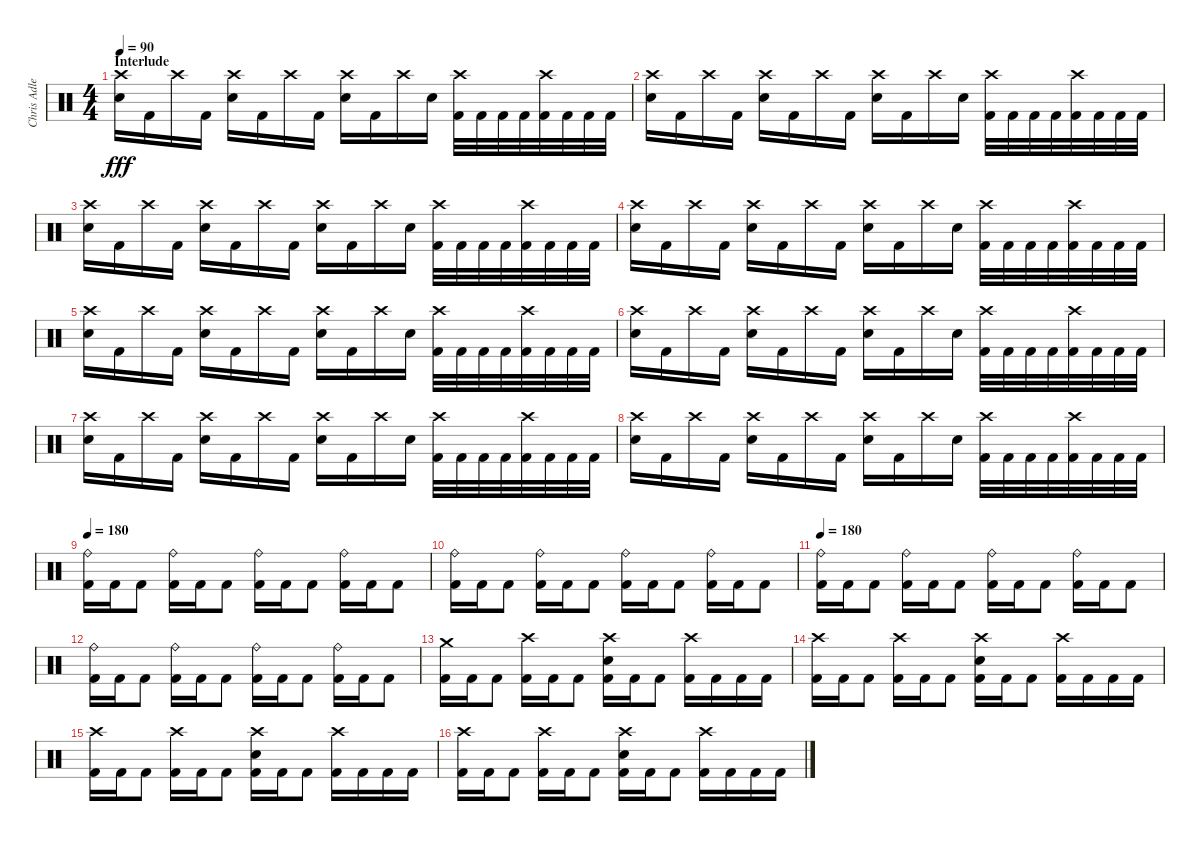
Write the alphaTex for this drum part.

\track ("Chris Adler" "Chris Adle") {instrument percussion}
\staff {score}
\articulation defaults
\ts (4 4)
\section ("" "Interlude")
\tempo 90
\clef neutral
\ks c
("Crash high (hit)" "Electric Snare (hit)").16{dy fff} "Kick (hit) 2".16 "Crash high (hit)".16 "Kick (hit) 2".16 ("Crash high (hit)" "Electric Snare (hit)").16 "Kick (hit) 2".16 "Crash high (hit)".16 "Kick (hit) 2".16 ("Crash high (hit)" "Electric Snare (hit)").16 "Kick (hit) 2".16 "Crash high (hit)".16 "Electric Snare (hit)".16 ("Crash high (hit)" "Kick (hit) 2").32 "Kick (hit) 2".32 "Kick (hit) 2".32 "Kick (hit) 2".32 ("Crash high (hit)" "Kick (hit) 2").32 "Kick (hit) 2".32 "Kick (hit) 2".32 "Kick (hit) 2".32 |
("Crash high (hit)" "Electric Snare (hit)").16 "Kick (hit) 2".16 "Crash high (hit)".16 "Kick (hit) 2".16 ("Crash high (hit)" "Electric Snare (hit)").16 "Kick (hit) 2".16 "Crash high (hit)".16 "Kick (hit) 2".16 ("Crash high (hit)" "Electric Snare (hit)").16 "Kick (hit) 2".16 "Crash high (hit)".16 "Electric Snare (hit)".16 ("Crash high (hit)" "Kick (hit) 2").32 "Kick (hit) 2".32 "Kick (hit) 2".32 "Kick (hit) 2".32 ("Crash high (hit)" "Kick (hit) 2").32 "Kick (hit) 2".32 "Kick (hit) 2".32 "Kick (hit) 2".32 |
("Crash high (hit)" "Electric Snare (hit)").16 "Kick (hit) 2".16 "Crash high (hit)".16 "Kick (hit) 2".16 ("Crash high (hit)" "Electric Snare (hit)").16 "Kick (hit) 2".16 "Crash high (hit)".16 "Kick (hit) 2".16 ("Crash high (hit)" "Electric Snare (hit)").16 "Kick (hit) 2".16 "Crash high (hit)".16 "Electric Snare (hit)".16 ("Crash high (hit)" "Kick (hit) 2").32 "Kick (hit) 2".32 "Kick (hit) 2".32 "Kick (hit) 2".32 ("Crash high (hit)" "Kick (hit) 2").32 "Kick (hit) 2".32 "Kick (hit) 2".32 "Kick (hit) 2".32 |
("Crash high (hit)" "Electric Snare (hit)").16 "Kick (hit) 2".16 "Crash high (hit)".16 "Kick (hit) 2".16 ("Crash high (hit)" "Electric Snare (hit)").16 "Kick (hit) 2".16 "Crash high (hit)".16 "Kick (hit) 2".16 ("Crash high (hit)" "Electric Snare (hit)").16 "Kick (hit) 2".16 "Crash high (hit)".16 "Electric Snare (hit)".16 ("Crash high (hit)" "Kick (hit) 2").32 "Kick (hit) 2".32 "Kick (hit) 2".32 "Kick (hit) 2".32 ("Crash high (hit)" "Kick (hit) 2").32 "Kick (hit) 2".32 "Kick (hit) 2".32 "Kick (hit) 2".32 |
("Crash high (hit)" "Electric Snare (hit)").16 "Kick (hit) 2".16 "Crash high (hit)".16 "Kick (hit) 2".16 ("Crash high (hit)" "Electric Snare (hit)").16 "Kick (hit) 2".16 "Crash high (hit)".16 "Kick (hit) 2".16 ("Crash high (hit)" "Electric Snare (hit)").16 "Kick (hit) 2".16 "Crash high (hit)".16 "Electric Snare (hit)".16 ("Crash high (hit)" "Kick (hit) 2").32 "Kick (hit) 2".32 "Kick (hit) 2".32 "Kick (hit) 2".32 ("Crash high (hit)" "Kick (hit) 2").32 "Kick (hit) 2".32 "Kick (hit) 2".32 "Kick (hit) 2".32 |
("Crash high (hit)" "Electric Snare (hit)").16 "Kick (hit) 2".16 "Crash high (hit)".16 "Kick (hit) 2".16 ("Crash high (hit)" "Electric Snare (hit)").16 "Kick (hit) 2".16 "Crash high (hit)".16 "Kick (hit) 2".16 ("Crash high (hit)" "Electric Snare (hit)").16 "Kick (hit) 2".16 "Crash high (hit)".16 "Electric Snare (hit)".16 ("Crash high (hit)" "Kick (hit) 2").32 "Kick (hit) 2".32 "Kick (hit) 2".32 "Kick (hit) 2".32 ("Crash high (hit)" "Kick (hit) 2").32 "Kick (hit) 2".32 "Kick (hit) 2".32 "Kick (hit) 2".32 |
("Crash high (hit)" "Electric Snare (hit)").16 "Kick (hit) 2".16 "Crash high (hit)".16 "Kick (hit) 2".16 ("Crash high (hit)" "Electric Snare (hit)").16 "Kick (hit) 2".16 "Crash high (hit)".16 "Kick (hit) 2".16 ("Crash high (hit)" "Electric Snare (hit)").16 "Kick (hit) 2".16 "Crash high (hit)".16 "Electric Snare (hit)".16 ("Crash high (hit)" "Kick (hit) 2").32 "Kick (hit) 2".32 "Kick (hit) 2".32 "Kick (hit) 2".32 ("Crash high (hit)" "Kick (hit) 2").32 "Kick (hit) 2".32 "Kick (hit) 2".32 "Kick (hit) 2".32 |
("Crash high (hit)" "Electric Snare (hit)").16 "Kick (hit) 2".16 "Crash high (hit)".16 "Kick (hit) 2".16 ("Crash high (hit)" "Electric Snare (hit)").16 "Kick (hit) 2".16 "Crash high (hit)".16 "Kick (hit) 2".16 ("Crash high (hit)" "Electric Snare (hit)").16 "Kick (hit) 2".16 "Crash high (hit)".16 "Electric Snare (hit)".16 ("Crash high (hit)" "Kick (hit) 2").32 "Kick (hit) 2".32 "Kick (hit) 2".32 "Kick (hit) 2".32 ("Crash high (hit)" "Kick (hit) 2").32 "Kick (hit) 2".32 "Kick (hit) 2".32 "Kick (hit) 2".32 |
\tempo 180
("Ride (bell)" "Kick (hit) 2").16 "Kick (hit) 2".16 "Kick (hit) 2".8 ("Ride (bell)" "Kick (hit) 2").16 "Kick (hit) 2".16 "Kick (hit) 2".8 ("Ride (bell)" "Kick (hit) 2").16 "Kick (hit) 2".16 "Kick (hit) 2".8 ("Ride (bell)" "Kick (hit) 2").16 "Kick (hit) 2".16 "Kick (hit) 2".8 |
("Ride (bell)" "Kick (hit) 2").16 "Kick (hit) 2".16 "Kick (hit) 2".8 ("Ride (bell)" "Kick (hit) 2").16 "Kick (hit) 2".16 "Kick (hit) 2".8 ("Ride (bell)" "Kick (hit) 2").16 "Kick (hit) 2".16 "Kick (hit) 2".8 ("Ride (bell)" "Kick (hit) 2").16 "Kick (hit) 2".16 "Kick (hit) 2".8 |
\tempo 180
("Ride (bell)" "Kick (hit) 2").16 "Kick (hit) 2".16 "Kick (hit) 2".8 ("Ride (bell)" "Kick (hit) 2").16 "Kick (hit) 2".16 "Kick (hit) 2".8 ("Ride (bell)" "Kick (hit) 2").16 "Kick (hit) 2".16 "Kick (hit) 2".8 ("Ride (bell)" "Kick (hit) 2").16 "Kick (hit) 2".16 "Kick (hit) 2".8 |
("Ride (bell)" "Kick (hit) 2").16 "Kick (hit) 2".16 "Kick (hit) 2".8 ("Ride (bell)" "Kick (hit) 2").16 "Kick (hit) 2".16 "Kick (hit) 2".8 ("Ride (bell)" "Kick (hit) 2").16 "Kick (hit) 2".16 "Kick (hit) 2".8 ("Ride (bell)" "Kick (hit) 2").16 "Kick (hit) 2".16 "Kick (hit) 2".8 |
("Crash medium (hit)" "Kick (hit) 2").16 "Kick (hit) 2".16 "Kick (hit) 2".8 ("Crash high (hit)" "Kick (hit) 2").16 "Kick (hit) 2".16 "Kick (hit) 2".8 ("Crash high (hit)" "Electric Snare (hit)" "Kick (hit) 2").16 "Kick (hit) 2".16 "Kick (hit) 2".8 ("Crash high (hit)" "Kick (hit) 2").16 "Kick (hit) 2".16 "Kick (hit) 2".16 "Kick (hit) 2".16 |
("Crash high (hit)" "Kick (hit) 2").16 "Kick (hit) 2".16 "Kick (hit) 2".8 ("Crash high (hit)" "Kick (hit) 2").16 "Kick (hit) 2".16 "Kick (hit) 2".8 ("Crash high (hit)" "Electric Snare (hit)" "Kick (hit) 2").16 "Kick (hit) 2".16 "Kick (hit) 2".8 ("Crash high (hit)" "Kick (hit) 2").16 "Kick (hit) 2".16 "Kick (hit) 2".16 "Kick (hit) 2".16 |
("Crash high (hit)" "Kick (hit) 2").16 "Kick (hit) 2".16 "Kick (hit) 2".8 ("Crash high (hit)" "Kick (hit) 2").16 "Kick (hit) 2".16 "Kick (hit) 2".8 ("Crash high (hit)" "Electric Snare (hit)" "Kick (hit) 2").16 "Kick (hit) 2".16 "Kick (hit) 2".8 ("Crash high (hit)" "Kick (hit) 2").16 "Kick (hit) 2".16 "Kick (hit) 2".16 "Kick (hit) 2".16 |
("Crash high (hit)" "Kick (hit) 2").16 "Kick (hit) 2".16 "Kick (hit) 2".8 ("Crash high (hit)" "Kick (hit) 2").16 "Kick (hit) 2".16 "Kick (hit) 2".8 ("Crash high (hit)" "Electric Snare (hit)" "Kick (hit) 2").16 "Kick (hit) 2".16 "Kick (hit) 2".8 ("Crash high (hit)" "Kick (hit) 2").16 "Kick (hit) 2".16 "Kick (hit) 2".16 "Kick (hit) 2".16
